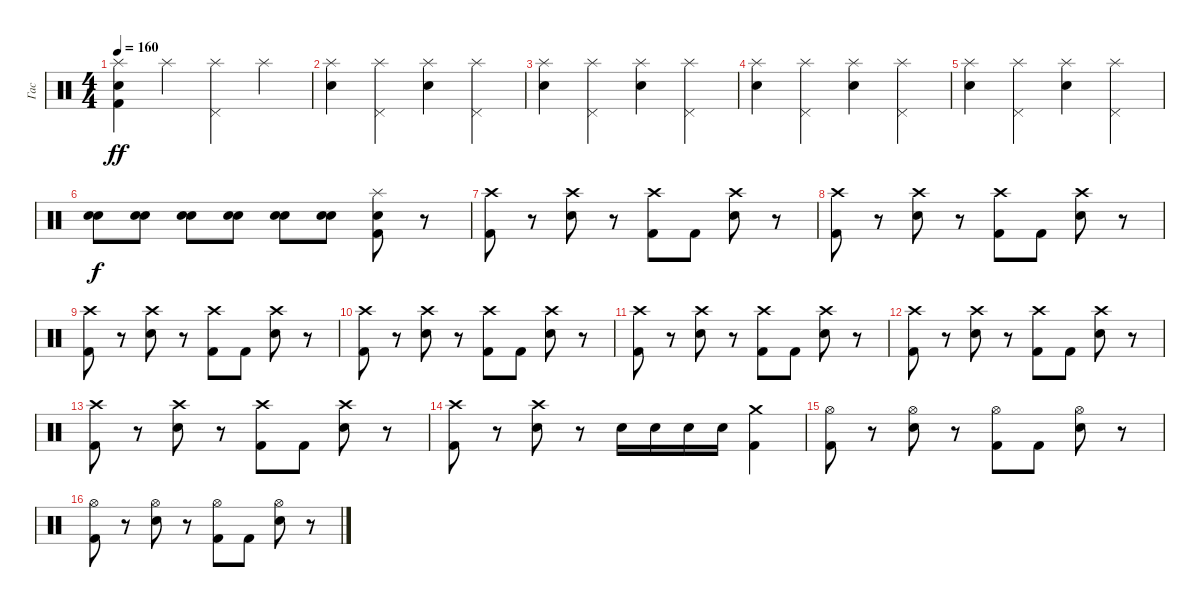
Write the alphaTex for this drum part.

\track ("Гас" "Гас") {instrument percussion}
\staff {score}
\articulation defaults
\ts (4 4)
\tempo 160
\clef neutral
\ks c
("Splash (hit)" "Electric Snare (hit)" "Kick (hit) 2").4{dy ff} "Splash (hit)".4 ("Splash (hit)" "Pedal Hi-Hat (hit)").4 "Splash (hit)".4 |
("Splash (hit)" "Electric Snare (hit)").4 ("Splash (hit)" "Pedal Hi-Hat (hit)").4 ("Splash (hit)" "Electric Snare (hit)").4 ("Splash (hit)" "Pedal Hi-Hat (hit)").4 |
("Splash (hit)" "Electric Snare (hit)").4 ("Splash (hit)" "Pedal Hi-Hat (hit)").4 ("Splash (hit)" "Electric Snare (hit)").4 ("Splash (hit)" "Pedal Hi-Hat (hit)").4 |
("Splash (hit)" "Electric Snare (hit)").4 ("Splash (hit)" "Pedal Hi-Hat (hit)").4 ("Splash (hit)" "Electric Snare (hit)").4 ("Splash (hit)" "Pedal Hi-Hat (hit)").4 |
("Splash (hit)" "Electric Snare (hit)").4 ("Splash (hit)" "Pedal Hi-Hat (hit)").4 ("Splash (hit)" "Electric Snare (hit)").4 ("Splash (hit)" "Pedal Hi-Hat (hit)").4 |
("Electric Snare (hit)" "Snare (hit) 2").8{dy f} ("Electric Snare (hit)" "Snare (hit) 2").8 ("Electric Snare (hit)" "Snare (hit) 2").8 ("Electric Snare (hit)" "Snare (hit) 2").8 ("Electric Snare (hit)" "Snare (hit) 2").8 ("Electric Snare (hit)" "Snare (hit) 2").8 ("Splash (hit)" "Kick (hit) 2" "Electric Snare (hit)").8 r.8 |
("Crash high (hit)" "Kick (hit) 2").8 r.8 ("Crash high (hit)" "Electric Snare (hit)").8 r.8 ("Crash high (hit)" "Kick (hit) 2").8 "Kick (hit) 2".8 ("Crash high (hit)" "Electric Snare (hit)").8 r.8 |
("Crash high (hit)" "Kick (hit) 2").8 r.8 ("Crash high (hit)" "Electric Snare (hit)").8 r.8 ("Crash high (hit)" "Kick (hit) 2").8 "Kick (hit) 2".8 ("Crash high (hit)" "Electric Snare (hit)").8 r.8 |
("Crash high (hit)" "Kick (hit) 2").8 r.8 ("Crash high (hit)" "Electric Snare (hit)").8 r.8 ("Crash high (hit)" "Kick (hit) 2").8 "Kick (hit) 2".8 ("Crash high (hit)" "Electric Snare (hit)").8 r.8 |
("Crash high (hit)" "Kick (hit) 2").8 r.8 ("Crash high (hit)" "Electric Snare (hit)").8 r.8 ("Crash high (hit)" "Kick (hit) 2").8 "Kick (hit) 2".8 ("Crash high (hit)" "Electric Snare (hit)").8 r.8 |
("Crash high (hit)" "Kick (hit) 2").8 r.8 ("Crash high (hit)" "Electric Snare (hit)").8 r.8 ("Crash high (hit)" "Kick (hit) 2").8 "Kick (hit) 2".8 ("Crash high (hit)" "Electric Snare (hit)").8 r.8 |
("Crash high (hit)" "Kick (hit) 2").8 r.8 ("Crash high (hit)" "Electric Snare (hit)").8 r.8 ("Crash high (hit)" "Kick (hit) 2").8 "Kick (hit) 2".8 ("Crash high (hit)" "Electric Snare (hit)").8 r.8 |
("Crash high (hit)" "Kick (hit) 2").8 r.8 ("Crash high (hit)" "Electric Snare (hit)").8 r.8 ("Crash high (hit)" "Kick (hit) 2").8 "Kick (hit) 2".8 ("Crash high (hit)" "Electric Snare (hit)").8 r.8 |
("Crash high (hit)" "Kick (hit) 2").8 r.8 ("Crash high (hit)" "Electric Snare (hit)").8 r.8 "Electric Snare (hit)".16 "Electric Snare (hit)".16 "Electric Snare (hit)".16 "Electric Snare (hit)".16 ("Crash medium (hit)" "Kick (hit) 2").4 |
("Hi-Hat (open)" "Kick (hit) 2").8 r.8 ("Hi-Hat (open)" "Electric Snare (hit)").8 r.8 ("Hi-Hat (open)" "Kick (hit) 2").8 "Kick (hit) 2".8 ("Hi-Hat (open)" "Electric Snare (hit)").8 r.8 |
("Hi-Hat (open)" "Kick (hit) 2").8 r.8 ("Hi-Hat (open)" "Electric Snare (hit)").8 r.8 ("Hi-Hat (open)" "Kick (hit) 2").8 "Kick (hit) 2".8 ("Hi-Hat (open)" "Electric Snare (hit)").8 r.8
